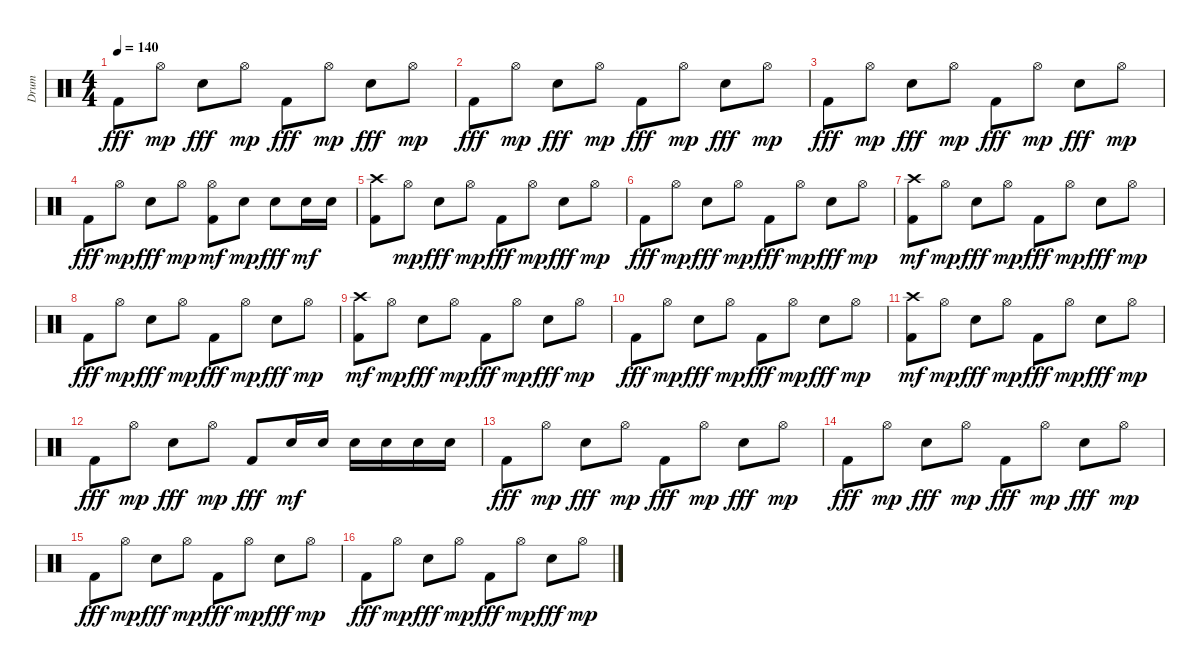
\track ("Drum" "Drum") {instrument percussion}
\staff {score}
\articulation defaults
\ts (4 4)
\tempo 140
\clef neutral
\ks c "Kick (hit) 2".8{dy fff} "Hi-Hat (open)".8{dy mp} "Electric Snare (hit)".8{dy fff} "Hi-Hat (open)".8{dy mp} "Kick (hit) 2".8{dy fff} "Hi-Hat (open)".8{dy mp} "Electric Snare (hit)".8{dy fff} "Hi-Hat (open)".8{dy mp}
|
"Kick (hit) 2".8{dy fff} "Hi-Hat (open)".8{dy mp} "Electric Snare (hit)".8{dy fff} "Hi-Hat (open)".8{dy mp} "Kick (hit) 2".8{dy fff} "Hi-Hat (open)".8{dy mp} "Electric Snare (hit)".8{dy fff} "Hi-Hat (open)".8{dy mp} |
"Kick (hit) 2".8{dy fff} "Hi-Hat (open)".8{dy mp} "Electric Snare (hit)".8{dy fff} "Hi-Hat (open)".8{dy mp} "Kick (hit) 2".8{dy fff} "Hi-Hat (open)".8{dy mp} "Electric Snare (hit)".8{dy fff} "Hi-Hat (open)".8{dy mp} |
"Kick (hit) 2".8{dy fff} "Hi-Hat (open)".8{dy mp} "Electric Snare (hit)".8{dy fff} "Hi-Hat (open)".8{dy mp} ("Kick (hit) 2" "Hi-Hat (open)").8{dy mf} "Electric Snare (hit)".8{dy mp} "Electric Snare (hit)".8{dy fff} "Electric Snare (hit)".16{dy mf} "Electric Snare (hit)".16 |
("Kick (hit) 2" "Crash high (hit)").8 "Hi-Hat (open)".8{dy mp} "Electric Snare (hit)".8{dy fff} "Hi-Hat (open)".8{dy mp} "Kick (hit) 2".8{dy fff} "Hi-Hat (open)".8{dy mp} "Electric Snare (hit)".8{dy fff} "Hi-Hat (open)".8{dy mp} |
"Kick (hit) 2".8{dy fff} "Hi-Hat (open)".8{dy mp} "Electric Snare (hit)".8{dy fff} "Hi-Hat (open)".8{dy mp} "Kick (hit) 2".8{dy fff} "Hi-Hat (open)".8{dy mp} "Electric Snare (hit)".8{dy fff} "Hi-Hat (open)".8{dy mp} |
("Kick (hit) 2" "Crash high (hit)").8{dy mf} "Hi-Hat (open)".8{dy mp} "Electric Snare (hit)".8{dy fff} "Hi-Hat (open)".8{dy mp} "Kick (hit) 2".8{dy fff} "Hi-Hat (open)".8{dy mp} "Electric Snare (hit)".8{dy fff} "Hi-Hat (open)".8{dy mp} |
"Kick (hit) 2".8{dy fff} "Hi-Hat (open)".8{dy mp} "Electric Snare (hit)".8{dy fff} "Hi-Hat (open)".8{dy mp} "Kick (hit) 2".8{dy fff} "Hi-Hat (open)".8{dy mp} "Electric Snare (hit)".8{dy fff} "Hi-Hat (open)".8{dy mp} |
("Kick (hit) 2" "Crash high (hit)").8{dy mf} "Hi-Hat (open)".8{dy mp} "Electric Snare (hit)".8{dy fff} "Hi-Hat (open)".8{dy mp} "Kick (hit) 2".8{dy fff} "Hi-Hat (open)".8{dy mp} "Electric Snare (hit)".8{dy fff} "Hi-Hat (open)".8{dy mp} |
"Kick (hit) 2".8{dy fff} "Hi-Hat (open)".8{dy mp} "Electric Snare (hit)".8{dy fff} "Hi-Hat (open)".8{dy mp} "Kick (hit) 2".8{dy fff} "Hi-Hat (open)".8{dy mp} "Electric Snare (hit)".8{dy fff} "Hi-Hat (open)".8{dy mp} |
("Kick (hit) 2" "Crash high (hit)").8{dy mf} "Hi-Hat (open)".8{dy mp} "Electric Snare (hit)".8{dy fff} "Hi-Hat (open)".8{dy mp} "Kick (hit) 2".8{dy fff} "Hi-Hat (open)".8{dy mp} "Electric Snare (hit)".8{dy fff} "Hi-Hat (open)".8{dy mp} |
"Kick (hit) 2".8{dy fff} "Hi-Hat (open)".8{dy mp} "Electric Snare (hit)".8{dy fff} "Hi-Hat (open)".8{dy mp} "Kick (hit) 2".8{dy fff} "Electric Snare (hit)".16{dy mf} "Electric Snare (hit)".16 "Electric Snare (hit)".16 "Electric Snare (hit)".16 "Electric Snare (hit)".16 "Electric Snare (hit)".16 |
"Kick (hit) 2".8{dy fff} "Hi-Hat (open)".8{dy mp} "Electric Snare (hit)".8{dy fff} "Hi-Hat (open)".8{dy mp} "Kick (hit) 2".8{dy fff} "Hi-Hat (open)".8{dy mp} "Electric Snare (hit)".8{dy fff} "Hi-Hat (open)".8{dy mp} |
"Kick (hit) 2".8{dy fff} "Hi-Hat (open)".8{dy mp} "Electric Snare (hit)".8{dy fff} "Hi-Hat (open)".8{dy mp} "Kick (hit) 2".8{dy fff} "Hi-Hat (open)".8{dy mp} "Electric Snare (hit)".8{dy fff} "Hi-Hat (open)".8{dy mp} |
"Kick (hit) 2".8{dy fff} "Hi-Hat (open)".8{dy mp} "Electric Snare (hit)".8{dy fff} "Hi-Hat (open)".8{dy mp} "Kick (hit) 2".8{dy fff} "Hi-Hat (open)".8{dy mp} "Electric Snare (hit)".8{dy fff} "Hi-Hat (open)".8{dy mp} |
"Kick (hit) 2".8{dy fff} "Hi-Hat (open)".8{dy mp} "Electric Snare (hit)".8{dy fff} "Hi-Hat (open)".8{dy mp} "Kick (hit) 2".8{dy fff} "Hi-Hat (open)".8{dy mp} "Electric Snare (hit)".8{dy fff} "Hi-Hat (open)".8{dy mp}
